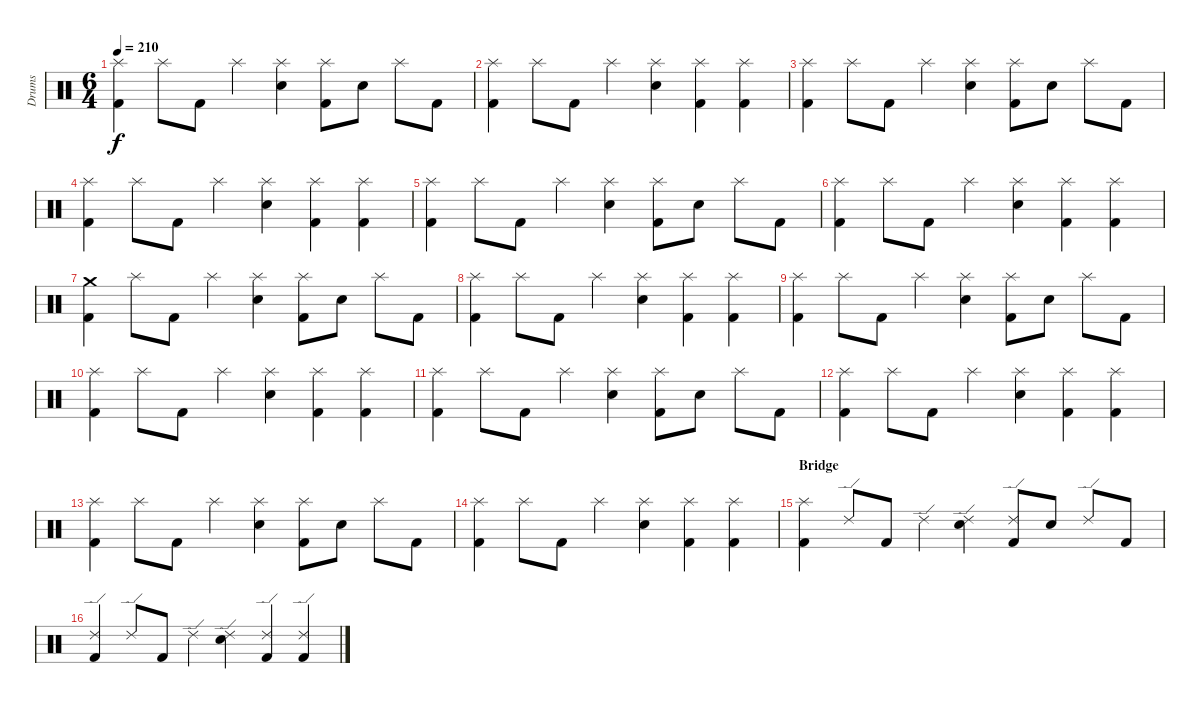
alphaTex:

\track ("Drums" "Drums") {instrument percussion}
\staff {score}
\articulation defaults
\ts (6 4)
\tempo 210
\clef neutral
\ks c
("Splash (hit)" "Kick (hit) 2").4{dy f} "Splash (hit)".8 "Kick (hit) 2".8 "Splash (hit)".4 ("Splash (hit)" "Electric Snare (hit)").4 ("Splash (hit)" "Kick (hit) 2").8 "Electric Snare (hit)".8 "Splash (hit)".8 "Kick (hit) 2".8 |
("Splash (hit)" "Kick (hit) 2").4 "Splash (hit)".8 "Kick (hit) 2".8 "Splash (hit)".4 ("Splash (hit)" "Electric Snare (hit)").4 ("Splash (hit)" "Kick (hit) 2").4 ("Splash (hit)" "Kick (hit) 2").4 |
("Splash (hit)" "Kick (hit) 2").4 "Splash (hit)".8 "Kick (hit) 2".8 "Splash (hit)".4 ("Splash (hit)" "Electric Snare (hit)").4 ("Splash (hit)" "Kick (hit) 2").8 "Electric Snare (hit)".8 "Splash (hit)".8 "Kick (hit) 2".8 |
("Splash (hit)" "Kick (hit) 2").4 "Splash (hit)".8 "Kick (hit) 2".8 "Splash (hit)".4 ("Splash (hit)" "Electric Snare (hit)").4 ("Splash (hit)" "Kick (hit) 2").4 ("Splash (hit)" "Kick (hit) 2").4 |
("Splash (hit)" "Kick (hit) 2").4 "Splash (hit)".8 "Kick (hit) 2".8 "Splash (hit)".4 ("Splash (hit)" "Electric Snare (hit)").4 ("Splash (hit)" "Kick (hit) 2").8 "Electric Snare (hit)".8 "Splash (hit)".8 "Kick (hit) 2".8 |
("Splash (hit)" "Kick (hit) 2").4 "Splash (hit)".8 "Kick (hit) 2".8 "Splash (hit)".4 ("Splash (hit)" "Electric Snare (hit)").4 ("Splash (hit)" "Kick (hit) 2").4 ("Splash (hit)" "Kick (hit) 2").4 |
("Crash medium (hit)" "Kick (hit) 2").4 "Splash (hit)".8 "Kick (hit) 2".8 "Splash (hit)".4 ("Splash (hit)" "Electric Snare (hit)").4 ("Splash (hit)" "Kick (hit) 2").8 "Electric Snare (hit)".8 "Splash (hit)".8 "Kick (hit) 2".8 |
("Splash (hit)" "Kick (hit) 2").4 "Splash (hit)".8 "Kick (hit) 2".8 "Splash (hit)".4 ("Splash (hit)" "Electric Snare (hit)").4 ("Splash (hit)" "Kick (hit) 2").4 ("Splash (hit)" "Kick (hit) 2").4 |
("Splash (hit)" "Kick (hit) 2").4 "Splash (hit)".8 "Kick (hit) 2".8 "Splash (hit)".4 ("Splash (hit)" "Electric Snare (hit)").4 ("Splash (hit)" "Kick (hit) 2").8 "Electric Snare (hit)".8 "Splash (hit)".8 "Kick (hit) 2".8 |
("Splash (hit)" "Kick (hit) 2").4 "Splash (hit)".8 "Kick (hit) 2".8 "Splash (hit)".4 ("Splash (hit)" "Electric Snare (hit)").4 ("Splash (hit)" "Kick (hit) 2").4 ("Splash (hit)" "Kick (hit) 2").4 |
("Splash (hit)" "Kick (hit) 2").4 "Splash (hit)".8 "Kick (hit) 2".8 "Splash (hit)".4 ("Splash (hit)" "Electric Snare (hit)").4 ("Splash (hit)" "Kick (hit) 2").8 "Electric Snare (hit)".8 "Splash (hit)".8 "Kick (hit) 2".8 |
("Splash (hit)" "Kick (hit) 2").4 "Splash (hit)".8 "Kick (hit) 2".8 "Splash (hit)".4 ("Splash (hit)" "Electric Snare (hit)").4 ("Splash (hit)" "Kick (hit) 2").4 ("Splash (hit)" "Kick (hit) 2").4 |
("Splash (hit)" "Kick (hit) 2").4 "Splash (hit)".8 "Kick (hit) 2".8 "Splash (hit)".4 ("Splash (hit)" "Electric Snare (hit)").4 ("Splash (hit)" "Kick (hit) 2").8 "Electric Snare (hit)".8 "Splash (hit)".8 "Kick (hit) 2".8 |
("Splash (hit)" "Kick (hit) 2").4 "Splash (hit)".8 "Kick (hit) 2".8 "Splash (hit)".4 ("Splash (hit)" "Electric Snare (hit)").4 ("Splash (hit)" "Kick (hit) 2").4 ("Splash (hit)" "Kick (hit) 2").4 |
\section ("" "Bridge")
("Splash (hit)" "Kick (hit) 2").4 "Ride (edge) 2".8 "Kick (hit) 2".8 "Ride (edge) 2".4 ("Ride (edge) 2" "Electric Snare (hit)").4 ("Ride (edge) 2" "Kick (hit) 2").8 "Electric Snare (hit)".8 "Ride (edge) 2".8 "Kick (hit) 2".8 |
("Ride (edge) 2" "Kick (hit) 2").4 "Ride (edge) 2".8 "Kick (hit) 2".8 "Ride (edge) 2".4 ("Ride (edge) 2" "Electric Snare (hit)").4 ("Ride (edge) 2" "Kick (hit) 2").4 ("Ride (edge) 2" "Kick (hit) 2").4
